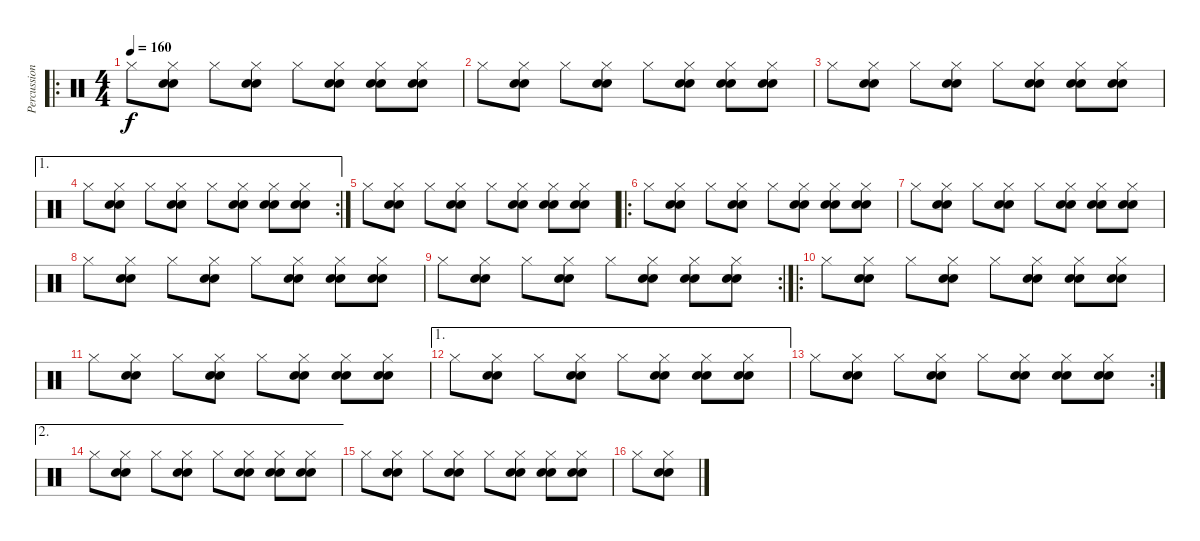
\track ("Percussion" "Percussion") {instrument percussion}
\staff {score}
\articulation defaults
\ro
\ts (4 4)
\tempo 160
\clef neutral
\ks c "Hi-Hat (closed)".8{dy f}
("Hi-Hat (closed)" "Electric Snare (hit)" "Electric Snare (hit)").8 "Hi-Hat (closed)".8 ("Hi-Hat (closed)" "Electric Snare (hit)" "Electric Snare (hit)").8 "Hi-Hat (closed)".8 ("Hi-Hat (closed)" "Electric Snare (hit)" "Electric Snare (hit)").8 ("Hi-Hat (closed)" "Electric Snare (hit)" "Electric Snare (hit)").8 ("Hi-Hat (closed)" "Electric Snare (hit)" "Electric Snare (hit)").8 |
"Hi-Hat (closed)".8 ("Hi-Hat (closed)" "Electric Snare (hit)" "Electric Snare (hit)").8 "Hi-Hat (closed)".8 ("Hi-Hat (closed)" "Electric Snare (hit)" "Electric Snare (hit)").8 "Hi-Hat (closed)".8 ("Hi-Hat (closed)" "Electric Snare (hit)" "Electric Snare (hit)").8 ("Hi-Hat (closed)" "Electric Snare (hit)" "Electric Snare (hit)").8 ("Hi-Hat (closed)" "Electric Snare (hit)" "Electric Snare (hit)").8 |
"Hi-Hat (closed)".8 ("Hi-Hat (closed)" "Electric Snare (hit)" "Electric Snare (hit)").8 "Hi-Hat (closed)".8 ("Hi-Hat (closed)" "Electric Snare (hit)" "Electric Snare (hit)").8 "Hi-Hat (closed)".8 ("Hi-Hat (closed)" "Electric Snare (hit)" "Electric Snare (hit)").8 ("Hi-Hat (closed)" "Electric Snare (hit)" "Electric Snare (hit)").8 ("Hi-Hat (closed)" "Electric Snare (hit)" "Electric Snare (hit)").8 |
\ae 1
\rc 2 "Hi-Hat (closed)".8
("Hi-Hat (closed)" "Electric Snare (hit)" "Electric Snare (hit)").8 "Hi-Hat (closed)".8 ("Hi-Hat (closed)" "Electric Snare (hit)" "Electric Snare (hit)").8 "Hi-Hat (closed)".8 ("Hi-Hat (closed)" "Electric Snare (hit)" "Electric Snare (hit)").8 ("Hi-Hat (closed)" "Electric Snare (hit)" "Electric Snare (hit)").8 ("Hi-Hat (closed)" "Electric Snare (hit)" "Electric Snare (hit)").8 |
"Hi-Hat (closed)".8 ("Hi-Hat (closed)" "Electric Snare (hit)" "Electric Snare (hit)").8 "Hi-Hat (closed)".8 ("Hi-Hat (closed)" "Electric Snare (hit)" "Electric Snare (hit)").8 "Hi-Hat (closed)".8 ("Hi-Hat (closed)" "Electric Snare (hit)" "Electric Snare (hit)").8 ("Hi-Hat (closed)" "Electric Snare (hit)" "Electric Snare (hit)").8 ("Hi-Hat (closed)" "Electric Snare (hit)" "Electric Snare (hit)").8 |
\ro "Hi-Hat (closed)".8
("Hi-Hat (closed)" "Electric Snare (hit)" "Electric Snare (hit)").8 "Hi-Hat (closed)".8 ("Hi-Hat (closed)" "Electric Snare (hit)" "Electric Snare (hit)").8 "Hi-Hat (closed)".8 ("Hi-Hat (closed)" "Electric Snare (hit)" "Electric Snare (hit)").8 ("Hi-Hat (closed)" "Electric Snare (hit)" "Electric Snare (hit)").8 ("Hi-Hat (closed)" "Electric Snare (hit)" "Electric Snare (hit)").8 |
"Hi-Hat (closed)".8 ("Hi-Hat (closed)" "Electric Snare (hit)" "Electric Snare (hit)").8 "Hi-Hat (closed)".8 ("Hi-Hat (closed)" "Electric Snare (hit)" "Electric Snare (hit)").8 "Hi-Hat (closed)".8 ("Hi-Hat (closed)" "Electric Snare (hit)" "Electric Snare (hit)").8 ("Hi-Hat (closed)" "Electric Snare (hit)" "Electric Snare (hit)").8 ("Hi-Hat (closed)" "Electric Snare (hit)" "Electric Snare (hit)").8 |
"Hi-Hat (closed)".8 ("Hi-Hat (closed)" "Electric Snare (hit)" "Electric Snare (hit)").8 "Hi-Hat (closed)".8 ("Hi-Hat (closed)" "Electric Snare (hit)" "Electric Snare (hit)").8 "Hi-Hat (closed)".8 ("Hi-Hat (closed)" "Electric Snare (hit)" "Electric Snare (hit)").8 ("Hi-Hat (closed)" "Electric Snare (hit)" "Electric Snare (hit)").8 ("Hi-Hat (closed)" "Electric Snare (hit)" "Electric Snare (hit)").8 |
\rc 2 "Hi-Hat (closed)".8
("Hi-Hat (closed)" "Electric Snare (hit)" "Electric Snare (hit)").8 "Hi-Hat (closed)".8 ("Hi-Hat (closed)" "Electric Snare (hit)" "Electric Snare (hit)").8 "Hi-Hat (closed)".8 ("Hi-Hat (closed)" "Electric Snare (hit)" "Electric Snare (hit)").8 ("Hi-Hat (closed)" "Electric Snare (hit)" "Electric Snare (hit)").8 ("Hi-Hat (closed)" "Electric Snare (hit)" "Electric Snare (hit)").8 |
\ro "Hi-Hat (closed)".8
("Hi-Hat (closed)" "Electric Snare (hit)" "Electric Snare (hit)").8 "Hi-Hat (closed)".8 ("Hi-Hat (closed)" "Electric Snare (hit)" "Electric Snare (hit)").8 "Hi-Hat (closed)".8 ("Hi-Hat (closed)" "Electric Snare (hit)" "Electric Snare (hit)").8 ("Hi-Hat (closed)" "Electric Snare (hit)" "Electric Snare (hit)").8 ("Hi-Hat (closed)" "Electric Snare (hit)" "Electric Snare (hit)").8 |
"Hi-Hat (closed)".8 ("Hi-Hat (closed)" "Electric Snare (hit)" "Electric Snare (hit)").8 "Hi-Hat (closed)".8 ("Hi-Hat (closed)" "Electric Snare (hit)" "Electric Snare (hit)").8 "Hi-Hat (closed)".8 ("Hi-Hat (closed)" "Electric Snare (hit)" "Electric Snare (hit)").8 ("Hi-Hat (closed)" "Electric Snare (hit)" "Electric Snare (hit)").8 ("Hi-Hat (closed)" "Electric Snare (hit)" "Electric Snare (hit)").8 |
\ae 1 "Hi-Hat (closed)".8
("Hi-Hat (closed)" "Electric Snare (hit)" "Electric Snare (hit)").8 "Hi-Hat (closed)".8 ("Hi-Hat (closed)" "Electric Snare (hit)" "Electric Snare (hit)").8 "Hi-Hat (closed)".8 ("Hi-Hat (closed)" "Electric Snare (hit)" "Electric Snare (hit)").8 ("Hi-Hat (closed)" "Electric Snare (hit)" "Electric Snare (hit)").8 ("Hi-Hat (closed)" "Electric Snare (hit)" "Electric Snare (hit)").8 |
\rc 2 "Hi-Hat (closed)".8
("Hi-Hat (closed)" "Electric Snare (hit)" "Electric Snare (hit)").8 "Hi-Hat (closed)".8 ("Hi-Hat (closed)" "Electric Snare (hit)" "Electric Snare (hit)").8 "Hi-Hat (closed)".8 ("Hi-Hat (closed)" "Electric Snare (hit)" "Electric Snare (hit)").8 ("Hi-Hat (closed)" "Electric Snare (hit)" "Electric Snare (hit)").8 ("Hi-Hat (closed)" "Electric Snare (hit)" "Electric Snare (hit)").8 |
\ae 2 "Hi-Hat (closed)".8
("Hi-Hat (closed)" "Electric Snare (hit)" "Electric Snare (hit)").8 "Hi-Hat (closed)".8 ("Hi-Hat (closed)" "Electric Snare (hit)" "Electric Snare (hit)").8 "Hi-Hat (closed)".8 ("Hi-Hat (closed)" "Electric Snare (hit)" "Electric Snare (hit)").8 ("Hi-Hat (closed)" "Electric Snare (hit)" "Electric Snare (hit)").8 ("Hi-Hat (closed)" "Electric Snare (hit)" "Electric Snare (hit)").8 |
"Hi-Hat (closed)".8 ("Hi-Hat (closed)" "Electric Snare (hit)" "Electric Snare (hit)").8 "Hi-Hat (closed)".8 ("Hi-Hat (closed)" "Electric Snare (hit)" "Electric Snare (hit)").8 "Hi-Hat (closed)".8 ("Hi-Hat (closed)" "Electric Snare (hit)" "Electric Snare (hit)").8 ("Hi-Hat (closed)" "Electric Snare (hit)" "Electric Snare (hit)").8 ("Hi-Hat (closed)" "Electric Snare (hit)" "Electric Snare (hit)").8 |
"Hi-Hat (closed)".8 ("Hi-Hat (closed)" "Electric Snare (hit)" "Electric Snare (hit)").8
